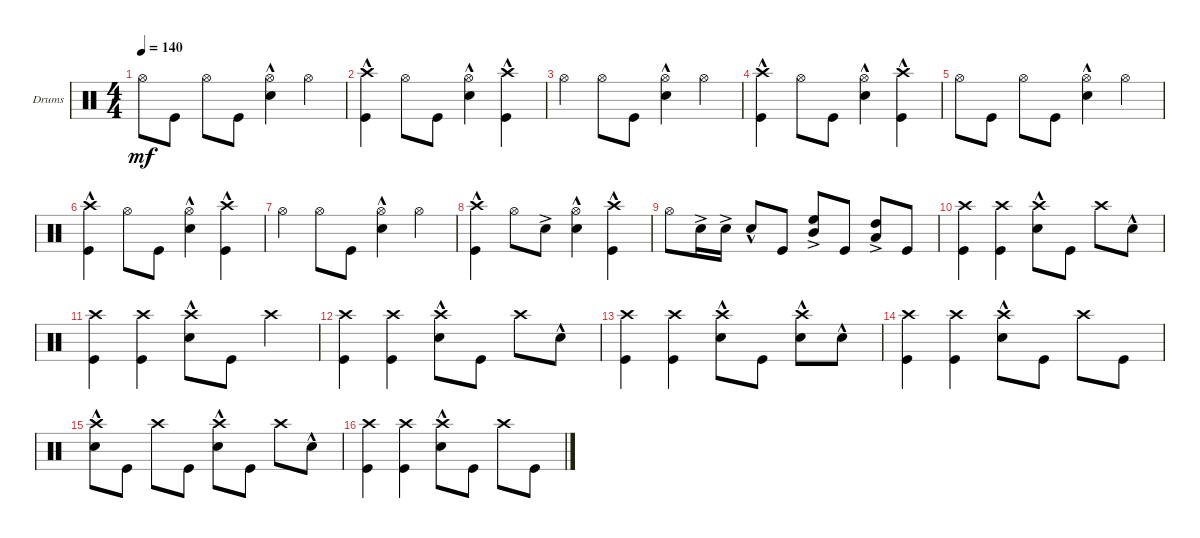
\bracketExtendMode groupsimilarinstruments
\firstSystemTrackNameOrientation horizontal
\otherSystemsTrackNameOrientation horizontal
\track ("Drumkit" "Drums") {instrument percussion}
\staff {score}
\articulation defaults
\ts (4 4)
\tempo 140
\clef neutral
\ks c "Hi-Hat (open)".8{dy mf} "Kick (hit)".8 "Hi-Hat (open)".8 "Kick (hit)".8
("Hi-Hat (open)" "Snare (hit) 2"{hac}).4 "Hi-Hat (open)".4 |
("Kick (hit)" "Crash high (hit)"{hac}).4 "Hi-Hat (open)".8 "Kick (hit)".8 ("Hi-Hat (open)" "Snare (hit) 2"{hac}).4 ("Kick (hit)" "Crash high (hit)"{hac}).4 |
"Hi-Hat (open)".4 "Hi-Hat (open)".8 "Kick (hit)".8 ("Hi-Hat (open)" "Snare (hit) 2"{hac}).4 "Hi-Hat (open)".4 |
("Kick (hit)" "Crash high (hit)"{hac}).4 "Hi-Hat (open)".8 "Kick (hit)".8 ("Hi-Hat (open)" "Snare (hit) 2"{hac}).4 ("Kick (hit)" "Crash high (hit)"{hac}).4 |
"Hi-Hat (open)".8 "Kick (hit)".8 "Hi-Hat (open)".8 "Kick (hit)".8 ("Hi-Hat (open)" "Snare (hit) 2"{hac}).4 "Hi-Hat (open)".4 |
("Kick (hit)" "Crash high (hit)"{hac}).4 "Hi-Hat (open)".8 "Kick (hit)".8 ("Hi-Hat (open)" "Snare (hit) 2"{hac}).4 ("Kick (hit)" "Crash high (hit)"{hac}).4 |
"Hi-Hat (open)".4 "Hi-Hat (open)".8 "Kick (hit)".8 ("Hi-Hat (open)" "Snare (hit) 2"{hac}).4 "Hi-Hat (open)".4 |
("Kick (hit)" "Crash high (hit)"{hac}).4 "Hi-Hat (open)".8 "Snare (hit) 2"{ac}.8 ("Hi-Hat (open)" "Snare (hit) 2"{hac}).4 ("Kick (hit)" "Crash high (hit)"{hac}).4 |
"Hi-Hat (open)".8 "Snare (hit) 2"{ac}.16 "Snare (hit) 2"{ac}.16 "Snare (hit) 2"{hac}.8 "Kick (hit)".8 ("High Floor Tom (hit)"{ac} "Mid Tom (hit)"{ac}).8 "Kick (hit)".8 ("High Tom (hit)"{ac} "Low Tom (hit)"{ac}).8 "Kick (hit)".8 |
("Crash high (hit)" "Kick (hit)").4 ("Crash high (hit)" "Kick (hit)").4 ("Crash high (hit)" "Snare (hit) 2"{hac}).8 "Kick (hit)".8 "Crash high (hit)".8 "Snare (hit) 2"{hac}.8 |
("Crash high (hit)" "Kick (hit)").4 ("Crash high (hit)" "Kick (hit)").4 ("Crash high (hit)" "Snare (hit) 2"{hac}).8 "Kick (hit)".8 "Crash high (hit)".4 |
("Crash high (hit)" "Kick (hit)").4 ("Crash high (hit)" "Kick (hit)").4 ("Crash high (hit)" "Snare (hit) 2"{hac}).8 "Kick (hit)".8 "Crash high (hit)".8 "Snare (hit) 2"{hac}.8 |
("Crash high (hit)" "Kick (hit)").4 ("Crash high (hit)" "Kick (hit)").4 ("Crash high (hit)" "Snare (hit) 2"{hac}).8 "Kick (hit)".8 ("Crash high (hit)" "Snare (hit) 2"{hac}).8 "Snare (hit) 2"{hac}.8 |
("Crash high (hit)" "Kick (hit)").4 ("Crash high (hit)" "Kick (hit)").4 ("Crash high (hit)" "Snare (hit) 2"{hac}).8 "Kick (hit)".8 "Crash high (hit)".8 "Kick (hit)".8 |
("Crash high (hit)" "Snare (hit) 2"{hac}).8 "Kick (hit)".8 "Crash high (hit)".8 "Kick (hit)".8 ("Crash high (hit)" "Snare (hit) 2"{hac}).8 "Kick (hit)".8 "Crash high (hit)".8 "Snare (hit) 2"{hac}.8 |
("Crash high (hit)" "Kick (hit)").4 ("Crash high (hit)" "Kick (hit)").4 ("Crash high (hit)" "Snare (hit) 2"{hac}).8 "Kick (hit)".8 "Crash high (hit)".8 "Kick (hit)".8
